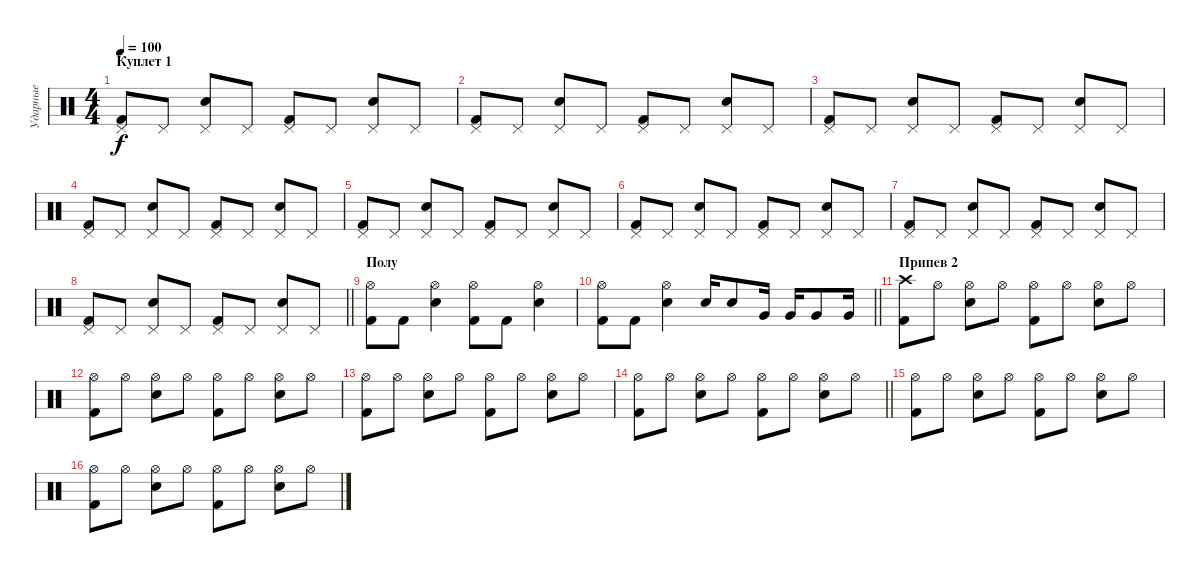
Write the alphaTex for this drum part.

\track ("Ударные" "Ударные") {instrument percussion}
\staff {score}
\articulation defaults
\ts (4 4)
\section ("" "Куплет 1")
\tempo 100
\clef neutral
\ks c
("Pedal Hi-Hat (hit)" "Kick (hit) 2").8{dy f} "Pedal Hi-Hat (hit)".8 ("Pedal Hi-Hat (hit)" "Electric Snare (hit)").8 "Pedal Hi-Hat (hit)".8 ("Pedal Hi-Hat (hit)" "Kick (hit) 2").8 "Pedal Hi-Hat (hit)".8 ("Pedal Hi-Hat (hit)" "Electric Snare (hit)").8 "Pedal Hi-Hat (hit)".8 |
("Pedal Hi-Hat (hit)" "Kick (hit) 2").8 "Pedal Hi-Hat (hit)".8 ("Pedal Hi-Hat (hit)" "Electric Snare (hit)").8 "Pedal Hi-Hat (hit)".8 ("Pedal Hi-Hat (hit)" "Kick (hit) 2").8 "Pedal Hi-Hat (hit)".8 ("Pedal Hi-Hat (hit)" "Electric Snare (hit)").8 "Pedal Hi-Hat (hit)".8 |
("Pedal Hi-Hat (hit)" "Kick (hit) 2").8 "Pedal Hi-Hat (hit)".8 ("Pedal Hi-Hat (hit)" "Electric Snare (hit)").8 "Pedal Hi-Hat (hit)".8 ("Pedal Hi-Hat (hit)" "Kick (hit) 2").8 "Pedal Hi-Hat (hit)".8 ("Pedal Hi-Hat (hit)" "Electric Snare (hit)").8 "Pedal Hi-Hat (hit)".8 |
("Pedal Hi-Hat (hit)" "Kick (hit) 2").8 "Pedal Hi-Hat (hit)".8 ("Pedal Hi-Hat (hit)" "Electric Snare (hit)").8 "Pedal Hi-Hat (hit)".8 ("Pedal Hi-Hat (hit)" "Kick (hit) 2").8 "Pedal Hi-Hat (hit)".8 ("Pedal Hi-Hat (hit)" "Electric Snare (hit)").8 "Pedal Hi-Hat (hit)".8 |
("Pedal Hi-Hat (hit)" "Kick (hit) 2").8 "Pedal Hi-Hat (hit)".8 ("Pedal Hi-Hat (hit)" "Electric Snare (hit)").8 "Pedal Hi-Hat (hit)".8 ("Pedal Hi-Hat (hit)" "Kick (hit) 2").8 "Pedal Hi-Hat (hit)".8 ("Pedal Hi-Hat (hit)" "Electric Snare (hit)").8 "Pedal Hi-Hat (hit)".8 |
("Pedal Hi-Hat (hit)" "Kick (hit) 2").8 "Pedal Hi-Hat (hit)".8 ("Pedal Hi-Hat (hit)" "Electric Snare (hit)").8 "Pedal Hi-Hat (hit)".8 ("Pedal Hi-Hat (hit)" "Kick (hit) 2").8 "Pedal Hi-Hat (hit)".8 ("Pedal Hi-Hat (hit)" "Electric Snare (hit)").8 "Pedal Hi-Hat (hit)".8 |
("Pedal Hi-Hat (hit)" "Kick (hit) 2").8 "Pedal Hi-Hat (hit)".8 ("Pedal Hi-Hat (hit)" "Electric Snare (hit)").8 "Pedal Hi-Hat (hit)".8 ("Pedal Hi-Hat (hit)" "Kick (hit) 2").8 "Pedal Hi-Hat (hit)".8 ("Pedal Hi-Hat (hit)" "Electric Snare (hit)").8 "Pedal Hi-Hat (hit)".8 |
\barLineRight lightlight
("Pedal Hi-Hat (hit)" "Kick (hit) 2").8 "Pedal Hi-Hat (hit)".8 ("Pedal Hi-Hat (hit)" "Electric Snare (hit)").8 "Pedal Hi-Hat (hit)".8 ("Pedal Hi-Hat (hit)" "Kick (hit) 2").8 "Pedal Hi-Hat (hit)".8 ("Pedal Hi-Hat (hit)" "Electric Snare (hit)").8 "Pedal Hi-Hat (hit)".8 |
\section ("" "Полу")
("Hi-Hat (open)" "Kick (hit) 2").8 "Kick (hit) 2".8 ("Hi-Hat (open)" "Electric Snare (hit)").4 ("Hi-Hat (open)" "Kick (hit) 2").8 "Kick (hit) 2".8 ("Hi-Hat (open)" "Electric Snare (hit)").4 |
\barLineRight lightlight
("Hi-Hat (open)" "Kick (hit) 2").8 "Kick (hit) 2".8 ("Hi-Hat (open)" "Electric Snare (hit)").4 "Electric Snare (hit)".16 "Electric Snare (hit)".8 "Very Low Tom (hit)".16 "Very Low Tom (hit)".16 "Very Low Tom (hit)".8 "Very Low Tom (hit)".16 |
\section ("" "Припев 2")
("Crash high (hit)" "Kick (hit) 2").8 "Hi-Hat (open)".8 ("Hi-Hat (open)" "Electric Snare (hit)").8 "Hi-Hat (open)".8 ("Hi-Hat (open)" "Kick (hit) 2").8 "Hi-Hat (open)".8 ("Hi-Hat (open)" "Electric Snare (hit)").8 "Hi-Hat (open)".8 |
("Hi-Hat (open)" "Kick (hit) 2").8 "Hi-Hat (open)".8 ("Hi-Hat (open)" "Electric Snare (hit)").8 "Hi-Hat (open)".8 ("Hi-Hat (open)" "Kick (hit) 2").8 "Hi-Hat (open)".8 ("Hi-Hat (open)" "Electric Snare (hit)").8 "Hi-Hat (open)".8 |
("Hi-Hat (open)" "Kick (hit) 2").8 "Hi-Hat (open)".8 ("Hi-Hat (open)" "Electric Snare (hit)").8 "Hi-Hat (open)".8 ("Hi-Hat (open)" "Kick (hit) 2").8 "Hi-Hat (open)".8 ("Hi-Hat (open)" "Electric Snare (hit)").8 "Hi-Hat (open)".8 |
\barLineRight lightlight
("Hi-Hat (open)" "Kick (hit) 2").8 "Hi-Hat (open)".8 ("Hi-Hat (open)" "Electric Snare (hit)").8 "Hi-Hat (open)".8 ("Hi-Hat (open)" "Kick (hit) 2").8 "Hi-Hat (open)".8 ("Hi-Hat (open)" "Electric Snare (hit)").8 "Hi-Hat (open)".8 |
("Hi-Hat (open)" "Kick (hit) 2").8 "Hi-Hat (open)".8 ("Hi-Hat (open)" "Electric Snare (hit)").8 "Hi-Hat (open)".8 ("Hi-Hat (open)" "Kick (hit) 2").8 "Hi-Hat (open)".8 ("Hi-Hat (open)" "Electric Snare (hit)").8 "Hi-Hat (open)".8 |
("Hi-Hat (open)" "Kick (hit) 2").8 "Hi-Hat (open)".8 ("Hi-Hat (open)" "Electric Snare (hit)").8 "Hi-Hat (open)".8 ("Hi-Hat (open)" "Kick (hit) 2").8 "Hi-Hat (open)".8 ("Hi-Hat (open)" "Electric Snare (hit)").8 "Hi-Hat (open)".8
